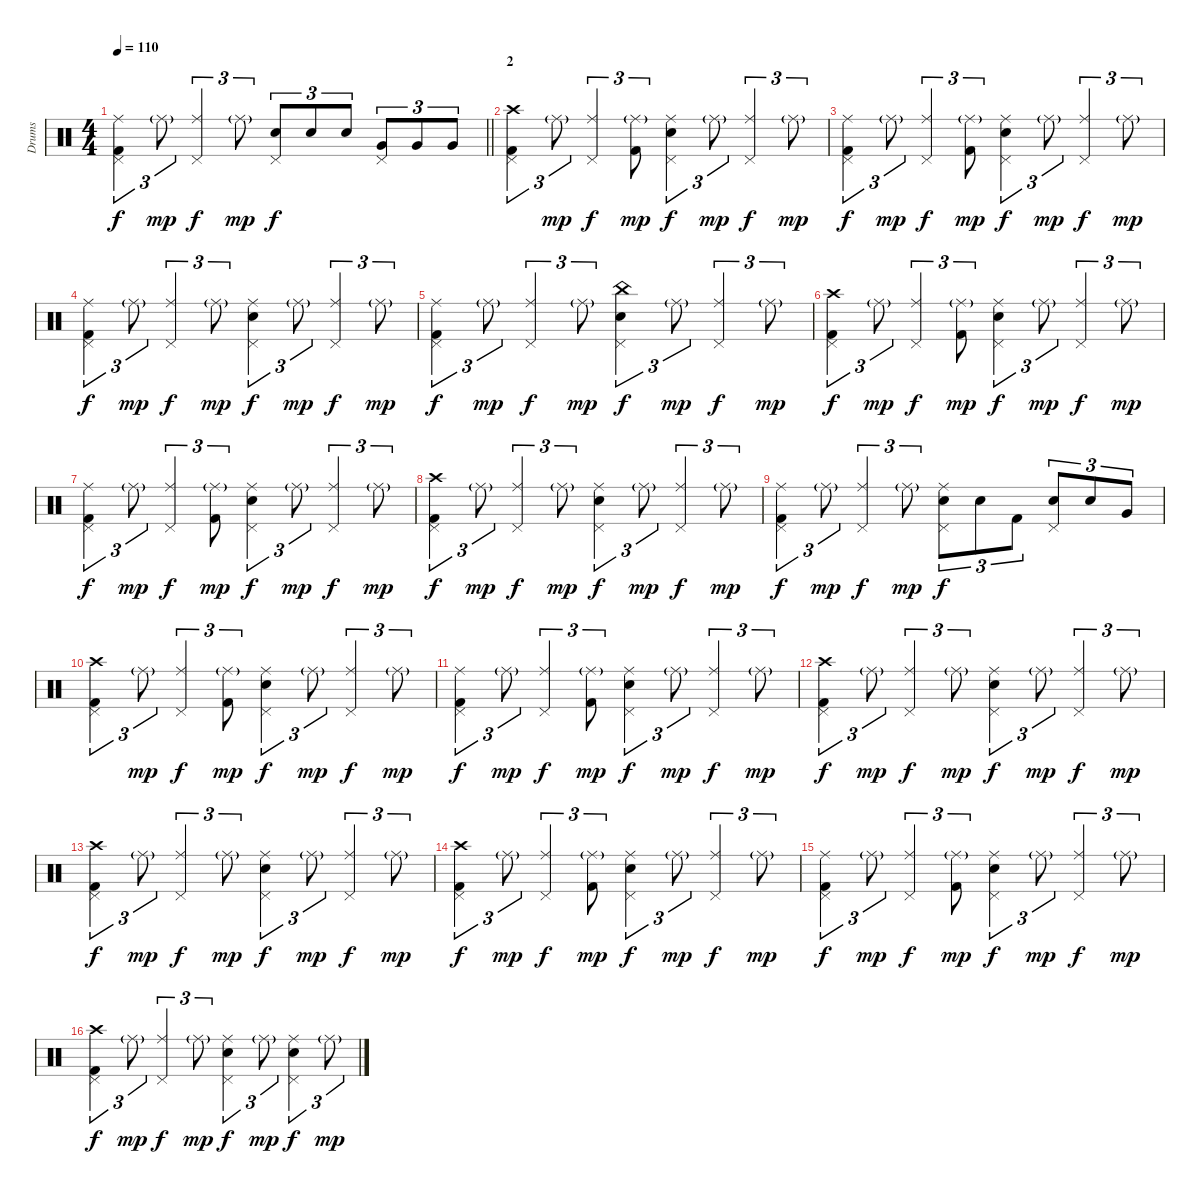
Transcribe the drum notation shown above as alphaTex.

\track ("Drums" "Drums") {instrument percussion}
\staff {score}
\articulation defaults
\ts (4 4)
\tempo 110
\clef neutral
\barLineRight lightlight
\ks c
("Ride (middle)" "Pedal Hi-Hat (hit)" "Kick (hit) 2").4{tu (3 2) dy f} "Ride (middle)"{g}.8{tu (3 2) dy mp} ("Ride (middle)" "Pedal Hi-Hat (hit)").4{tu (3 2) dy f} "Ride (middle)"{g}.8{tu (3 2) dy mp} ("Pedal Hi-Hat (hit)" "Electric Snare (hit)").8{tu (3 2) dy f} "Electric Snare (hit)".8{tu (3 2)} "Electric Snare (hit)".8{tu (3 2)} ("Pedal Hi-Hat (hit)" "Very Low Tom (hit)").8{tu (3 2)} "Very Low Tom (hit)".8{tu (3 2)} "Very Low Tom (hit)".8{tu (3 2)} |
\section ("" "2")
("Crash high (hit)" "Pedal Hi-Hat (hit)" "Kick (hit) 2").4{tu (3 2)} "Ride (middle)"{g}.8{tu (3 2) dy mp} ("Ride (middle)" "Pedal Hi-Hat (hit)").4{tu (3 2) dy f} ("Ride (middle)"{g} "Kick (hit) 2").8{tu (3 2) dy mp} ("Ride (middle)" "Pedal Hi-Hat (hit)" "Electric Snare (hit)").4{tu (3 2) dy f} "Ride (middle)"{g}.8{tu (3 2) dy mp} ("Ride (middle)" "Pedal Hi-Hat (hit)").4{tu (3 2) dy f} "Ride (middle)"{g}.8{tu (3 2) dy mp} |
("Ride (middle)" "Pedal Hi-Hat (hit)" "Kick (hit) 2").4{tu (3 2) dy f} "Ride (middle)"{g}.8{tu (3 2) dy mp} ("Ride (middle)" "Pedal Hi-Hat (hit)").4{tu (3 2) dy f} ("Ride (middle)"{g} "Kick (hit) 2").8{tu (3 2) dy mp} ("Ride (middle)" "Pedal Hi-Hat (hit)" "Electric Snare (hit)").4{tu (3 2) dy f} "Ride (middle)"{g}.8{tu (3 2) dy mp} ("Ride (middle)" "Pedal Hi-Hat (hit)").4{tu (3 2) dy f} "Ride (middle)"{g}.8{tu (3 2) dy mp} |
("Ride (middle)" "Pedal Hi-Hat (hit)" "Kick (hit) 2").4{tu (3 2) dy f} "Ride (middle)"{g}.8{tu (3 2) dy mp} ("Ride (middle)" "Pedal Hi-Hat (hit)").4{tu (3 2) dy f} "Ride (middle)"{g}.8{tu (3 2) dy mp} ("Ride (middle)" "Pedal Hi-Hat (hit)" "Electric Snare (hit)").4{tu (3 2) dy f} "Ride (middle)"{g}.8{tu (3 2) dy mp} ("Ride (middle)" "Pedal Hi-Hat (hit)").4{tu (3 2) dy f} "Ride (middle)"{g}.8{tu (3 2) dy mp} |
("Ride (middle)" "Pedal Hi-Hat (hit)" "Kick (hit) 2").4{tu (3 2) dy f} "Ride (middle)"{g}.8{tu (3 2) dy mp} ("Ride (middle)" "Pedal Hi-Hat (hit)").4{tu (3 2) dy f} "Ride (middle)"{g}.8{tu (3 2) dy mp} ("China (hit)" "Pedal Hi-Hat (hit)" "Electric Snare (hit)").4{tu (3 2) dy f} "Ride (middle)"{g}.8{tu (3 2) dy mp} ("Ride (middle)" "Pedal Hi-Hat (hit)").4{tu (3 2) dy f} "Ride (middle)"{g}.8{tu (3 2) dy mp} |
("Crash high (hit)" "Pedal Hi-Hat (hit)" "Kick (hit) 2").4{tu (3 2) dy f} "Ride (middle)"{g}.8{tu (3 2) dy mp} ("Ride (middle)" "Pedal Hi-Hat (hit)").4{tu (3 2) dy f} ("Ride (middle)"{g} "Kick (hit) 2").8{tu (3 2) dy mp} ("Ride (middle)" "Pedal Hi-Hat (hit)" "Electric Snare (hit)").4{tu (3 2) dy f} "Ride (middle)"{g}.8{tu (3 2) dy mp} ("Ride (middle)" "Pedal Hi-Hat (hit)").4{tu (3 2) dy f} "Ride (middle)"{g}.8{tu (3 2) dy mp} |
("Ride (middle)" "Pedal Hi-Hat (hit)" "Kick (hit) 2").4{tu (3 2) dy f} "Ride (middle)"{g}.8{tu (3 2) dy mp} ("Ride (middle)" "Pedal Hi-Hat (hit)").4{tu (3 2) dy f} ("Ride (middle)"{g} "Kick (hit) 2").8{tu (3 2) dy mp} ("Ride (middle)" "Pedal Hi-Hat (hit)" "Electric Snare (hit)").4{tu (3 2) dy f} "Ride (middle)"{g}.8{tu (3 2) dy mp} ("Ride (middle)" "Pedal Hi-Hat (hit)").4{tu (3 2) dy f} "Ride (middle)"{g}.8{tu (3 2) dy mp} |
("Crash high (hit)" "Pedal Hi-Hat (hit)" "Kick (hit) 2").4{tu (3 2) dy f} "Ride (middle)"{g}.8{tu (3 2) dy mp} ("Ride (middle)" "Pedal Hi-Hat (hit)").4{tu (3 2) dy f} "Ride (middle)"{g}.8{tu (3 2) dy mp} ("Ride (middle)" "Pedal Hi-Hat (hit)" "Electric Snare (hit)").4{tu (3 2) dy f} "Ride (middle)"{g}.8{tu (3 2) dy mp} ("Ride (middle)" "Pedal Hi-Hat (hit)").4{tu (3 2) dy f} "Ride (middle)"{g}.8{tu (3 2) dy mp} |
("Ride (middle)" "Pedal Hi-Hat (hit)" "Kick (hit) 2").4{tu (3 2) dy f} "Ride (middle)"{g}.8{tu (3 2) dy mp} ("Ride (middle)" "Pedal Hi-Hat (hit)").4{tu (3 2) dy f} "Ride (middle)"{g}.8{tu (3 2) dy mp} ("Ride (middle)" "Pedal Hi-Hat (hit)" "Electric Snare (hit)").8{tu (3 2) dy f} "Electric Snare (hit)".8{tu (3 2)} "Kick (hit) 2".8{tu (3 2)} ("Pedal Hi-Hat (hit)" "Electric Snare (hit)").8{tu (3 2)} "Electric Snare (hit)".8{tu (3 2)} "Very Low Tom (hit)".8{tu (3 2)} |
("Crash high (hit)" "Pedal Hi-Hat (hit)" "Kick (hit) 2").4{tu (3 2)} "Ride (middle)"{g}.8{tu (3 2) dy mp} ("Ride (middle)" "Pedal Hi-Hat (hit)").4{tu (3 2) dy f} ("Ride (middle)"{g} "Kick (hit) 2").8{tu (3 2) dy mp} ("Ride (middle)" "Pedal Hi-Hat (hit)" "Electric Snare (hit)").4{tu (3 2) dy f} "Ride (middle)"{g}.8{tu (3 2) dy mp} ("Ride (middle)" "Pedal Hi-Hat (hit)").4{tu (3 2) dy f} "Ride (middle)"{g}.8{tu (3 2) dy mp} |
("Ride (middle)" "Pedal Hi-Hat (hit)" "Kick (hit) 2").4{tu (3 2) dy f} "Ride (middle)"{g}.8{tu (3 2) dy mp} ("Ride (middle)" "Pedal Hi-Hat (hit)").4{tu (3 2) dy f} ("Ride (middle)"{g} "Kick (hit) 2").8{tu (3 2) dy mp} ("Ride (middle)" "Pedal Hi-Hat (hit)" "Electric Snare (hit)").4{tu (3 2) dy f} "Ride (middle)"{g}.8{tu (3 2) dy mp} ("Ride (middle)" "Pedal Hi-Hat (hit)").4{tu (3 2) dy f} "Ride (middle)"{g}.8{tu (3 2) dy mp} |
("Crash high (hit)" "Pedal Hi-Hat (hit)" "Kick (hit) 2").4{tu (3 2) dy f} "Ride (middle)"{g}.8{tu (3 2) dy mp} ("Ride (middle)" "Pedal Hi-Hat (hit)").4{tu (3 2) dy f} "Ride (middle)"{g}.8{tu (3 2) dy mp} ("Ride (middle)" "Pedal Hi-Hat (hit)" "Electric Snare (hit)").4{tu (3 2) dy f} "Ride (middle)"{g}.8{tu (3 2) dy mp} ("Ride (middle)" "Pedal Hi-Hat (hit)").4{tu (3 2) dy f} "Ride (middle)"{g}.8{tu (3 2) dy mp} |
("Crash high (hit)" "Pedal Hi-Hat (hit)" "Kick (hit) 2").4{tu (3 2) dy f} "Ride (middle)"{g}.8{tu (3 2) dy mp} ("Ride (middle)" "Pedal Hi-Hat (hit)").4{tu (3 2) dy f} "Ride (middle)"{g}.8{tu (3 2) dy mp} ("Ride (middle)" "Pedal Hi-Hat (hit)" "Electric Snare (hit)").4{tu (3 2) dy f} "Ride (middle)"{g}.8{tu (3 2) dy mp} ("Ride (middle)" "Pedal Hi-Hat (hit)").4{tu (3 2) dy f} "Ride (middle)"{g}.8{tu (3 2) dy mp} |
("Crash high (hit)" "Pedal Hi-Hat (hit)" "Kick (hit) 2").4{tu (3 2) dy f} "Ride (middle)"{g}.8{tu (3 2) dy mp} ("Ride (middle)" "Pedal Hi-Hat (hit)").4{tu (3 2) dy f} ("Ride (middle)"{g} "Kick (hit) 2").8{tu (3 2) dy mp} ("Ride (middle)" "Pedal Hi-Hat (hit)" "Electric Snare (hit)").4{tu (3 2) dy f} "Ride (middle)"{g}.8{tu (3 2) dy mp} ("Ride (middle)" "Pedal Hi-Hat (hit)").4{tu (3 2) dy f} "Ride (middle)"{g}.8{tu (3 2) dy mp} |
("Ride (middle)" "Pedal Hi-Hat (hit)" "Kick (hit) 2").4{tu (3 2) dy f} "Ride (middle)"{g}.8{tu (3 2) dy mp} ("Ride (middle)" "Pedal Hi-Hat (hit)").4{tu (3 2) dy f} ("Ride (middle)"{g} "Kick (hit) 2").8{tu (3 2) dy mp} ("Ride (middle)" "Pedal Hi-Hat (hit)" "Electric Snare (hit)").4{tu (3 2) dy f} "Ride (middle)"{g}.8{tu (3 2) dy mp} ("Ride (middle)" "Pedal Hi-Hat (hit)").4{tu (3 2) dy f} "Ride (middle)"{g}.8{tu (3 2) dy mp} |
("Crash high (hit)" "Pedal Hi-Hat (hit)" "Kick (hit) 2").4{tu (3 2) dy f} "Ride (middle)"{g}.8{tu (3 2) dy mp} ("Ride (middle)" "Pedal Hi-Hat (hit)").4{tu (3 2) dy f} "Ride (middle)"{g}.8{tu (3 2) dy mp} ("Ride (middle)" "Pedal Hi-Hat (hit)" "Electric Snare (hit)").4{tu (3 2) dy f} "Ride (middle)"{g}.8{tu (3 2) dy mp} ("Ride (middle)" "Pedal Hi-Hat (hit)" "Electric Snare (hit)").4{tu (3 2) dy f} "Ride (middle)"{g}.8{tu (3 2) dy mp}
